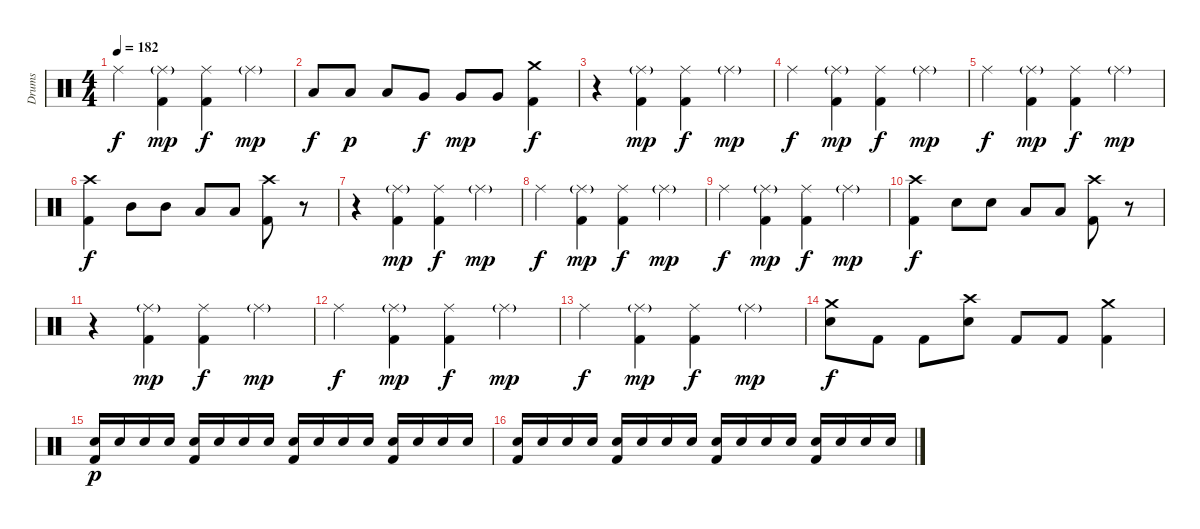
\track ("Drums" "Drums") {instrument percussion}
\staff {score}
\articulation defaults
\ts (4 4)
\tempo 182
\clef neutral
\ks c "Ride (middle)".4{dy f}
("Kick (hit) 2" "Ride (middle)"{g}).4{dy mp} ("Kick (hit) 2" "Ride (middle)").4{dy f} "Ride (middle)"{g}.4{dy mp} |
"Low Floor Tom (hit)".8{dy f} "Low Floor Tom (hit)".8{dy p} "Low Floor Tom (hit)".8 "Very Low Tom (hit)".8{dy f} "Very Low Tom (hit)".8{dy mp} "Very Low Tom (hit)".8 ("Kick (hit) 2" "Crash medium (hit)").4{dy f} |
r.4 ("Kick (hit) 2" "Ride (middle)"{g}).4{dy mp} ("Kick (hit) 2" "Ride (middle)").4{dy f} "Ride (middle)"{g}.4{dy mp} |
"Ride (middle)".4{dy f} ("Kick (hit) 2" "Ride (middle)"{g}).4{dy mp} ("Kick (hit) 2" "Ride (middle)").4{dy f} "Ride (middle)"{g}.4{dy mp} |
"Ride (middle)".4{dy f} ("Kick (hit) 2" "Ride (middle)"{g}).4{dy mp} ("Kick (hit) 2" "Ride (middle)").4{dy f} "Ride (middle)"{g}.4{dy mp} |
("Kick (hit) 2" "Crash high (hit)").4{dy f} "Mid Tom (hit)".8 "Mid Tom (hit)".8 "Low Tom (hit)".8 "Low Tom (hit)".8 ("Kick (hit) 2" "Crash high (hit)").8 r.8 |
r.4 ("Kick (hit) 2" "Ride (middle)"{g}).4{dy mp} ("Kick (hit) 2" "Ride (middle)").4{dy f} "Ride (middle)"{g}.4{dy mp} |
"Ride (middle)".4{dy f} ("Kick (hit) 2" "Ride (middle)"{g}).4{dy mp} ("Kick (hit) 2" "Ride (middle)").4{dy f} "Ride (middle)"{g}.4{dy mp} |
"Ride (middle)".4{dy f} ("Kick (hit) 2" "Ride (middle)"{g}).4{dy mp} ("Kick (hit) 2" "Ride (middle)").4{dy f} "Ride (middle)"{g}.4{dy mp} |
("Kick (hit) 2" "Crash high (hit)").4{dy f} "Electric Snare (hit)".8 "Electric Snare (hit)".8 "Low Tom (hit)".8 "Low Tom (hit)".8 ("Kick (hit) 2" "Crash high (hit)").8 r.8 |
r.4 ("Kick (hit) 2" "Ride (middle)"{g}).4{dy mp} ("Kick (hit) 2" "Ride (middle)").4{dy f} "Ride (middle)"{g}.4{dy mp} |
"Ride (middle)".4{dy f} ("Kick (hit) 2" "Ride (middle)"{g}).4{dy mp} ("Kick (hit) 2" "Ride (middle)").4{dy f} "Ride (middle)"{g}.4{dy mp} |
"Ride (middle)".4{dy f} ("Kick (hit) 2" "Ride (middle)"{g}).4{dy mp} ("Kick (hit) 2" "Ride (middle)").4{dy f} "Ride (middle)"{g}.4{dy mp} |
("Electric Snare (hit)" "Crash medium (hit)").8{dy f} "Kick (hit) 2".8 "Kick (hit) 2".8 ("Electric Snare (hit)" "Crash high (hit)").8 "Kick (hit) 2".8 "Kick (hit) 2".8 ("Kick (hit) 2" "Crash medium (hit)").4 |
("Kick (hit) 2" "Electric Snare (hit)").16{dy p} "Electric Snare (hit)".16 "Electric Snare (hit)".16 "Electric Snare (hit)".16 ("Kick (hit) 2" "Electric Snare (hit)").16 "Electric Snare (hit)".16 "Electric Snare (hit)".16 "Electric Snare (hit)".16 ("Kick (hit) 2" "Electric Snare (hit)").16 "Electric Snare (hit)".16 "Electric Snare (hit)".16 "Electric Snare (hit)".16 ("Kick (hit) 2" "Electric Snare (hit)").16 "Electric Snare (hit)".16 "Electric Snare (hit)".16 "Electric Snare (hit)".16 |
("Kick (hit) 2" "Electric Snare (hit)").16 "Electric Snare (hit)".16 "Electric Snare (hit)".16 "Electric Snare (hit)".16 ("Kick (hit) 2" "Electric Snare (hit)").16 "Electric Snare (hit)".16 "Electric Snare (hit)".16 "Electric Snare (hit)".16 ("Kick (hit) 2" "Electric Snare (hit)").16 "Electric Snare (hit)".16 "Electric Snare (hit)".16 "Electric Snare (hit)".16 ("Kick (hit) 2" "Electric Snare (hit)").16 "Electric Snare (hit)".16 "Electric Snare (hit)".16 "Electric Snare (hit)".16
